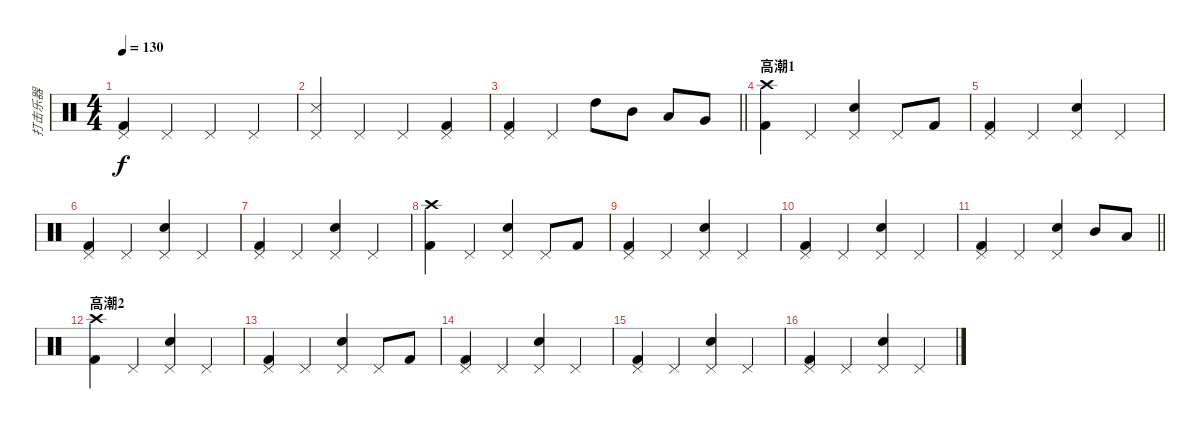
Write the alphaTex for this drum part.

\track ("打击乐器" "打击乐器") {instrument percussion}
\staff {score}
\articulation defaults
\ts (4 4)
\tempo 130
\clef neutral
\ks c
("Pedal Hi-Hat (hit)" "Kick (hit) 2").4{dy f} "Pedal Hi-Hat (hit)".4 "Pedal Hi-Hat (hit)".4 "Pedal Hi-Hat (hit)".4 |
("Pedal Hi-Hat (hit)" "Metronome (hit)").4 "Pedal Hi-Hat (hit)".4 "Pedal Hi-Hat (hit)".4 ("Pedal Hi-Hat (hit)" "Kick (hit) 2").4 |
\barLineRight lightlight
("Pedal Hi-Hat (hit)" "Kick (hit) 2").4 "Pedal Hi-Hat (hit)".4 "High Tom (hit)".8 "Mid Tom (hit)".8 "Low Tom (hit)".8 "Very Low Tom (hit)".8 |
\section ("" "高潮1")
("Crash high (hit)" "Kick (hit) 2").4 "Pedal Hi-Hat (hit)".4 ("Pedal Hi-Hat (hit)" "Snare (hit) 2").4 "Pedal Hi-Hat (hit)".8 "Kick (hit) 2".8 |
("Pedal Hi-Hat (hit)" "Kick (hit) 2").4 "Pedal Hi-Hat (hit)".4 ("Pedal Hi-Hat (hit)" "Snare (hit) 2").4 "Pedal Hi-Hat (hit)".4 |
("Pedal Hi-Hat (hit)" "Kick (hit) 2").4 "Pedal Hi-Hat (hit)".4 ("Pedal Hi-Hat (hit)" "Snare (hit) 2").4 "Pedal Hi-Hat (hit)".4 |
("Pedal Hi-Hat (hit)" "Kick (hit) 2").4 "Pedal Hi-Hat (hit)".4 ("Pedal Hi-Hat (hit)" "Snare (hit) 2").4 "Pedal Hi-Hat (hit)".4 |
("Crash high (hit)" "Kick (hit) 2").4 "Pedal Hi-Hat (hit)".4 ("Pedal Hi-Hat (hit)" "Snare (hit) 2").4 "Pedal Hi-Hat (hit)".8 "Kick (hit) 2".8 |
("Pedal Hi-Hat (hit)" "Kick (hit) 2").4 "Pedal Hi-Hat (hit)".4 ("Pedal Hi-Hat (hit)" "Snare (hit) 2").4 "Pedal Hi-Hat (hit)".4 |
("Pedal Hi-Hat (hit)" "Kick (hit) 2").4 "Pedal Hi-Hat (hit)".4 ("Pedal Hi-Hat (hit)" "Snare (hit) 2").4 "Pedal Hi-Hat (hit)".4 |
\barLineRight lightlight
("Pedal Hi-Hat (hit)" "Kick (hit) 2").4 "Pedal Hi-Hat (hit)".4 ("Pedal Hi-Hat (hit)" "Snare (hit) 2").4 "Mid Tom (hit)".8 "Low Tom (hit)".8 |
\section ("" "高潮2")
("Crash high (hit)" "Kick (hit) 2").4 "Pedal Hi-Hat (hit)".4 ("Pedal Hi-Hat (hit)" "Snare (hit) 2").4 "Pedal Hi-Hat (hit)".4 |
("Pedal Hi-Hat (hit)" "Kick (hit) 2").4 "Pedal Hi-Hat (hit)".4 ("Pedal Hi-Hat (hit)" "Snare (hit) 2").4 "Pedal Hi-Hat (hit)".8 "Kick (hit) 2".8 |
("Pedal Hi-Hat (hit)" "Kick (hit) 2").4 "Pedal Hi-Hat (hit)".4 ("Pedal Hi-Hat (hit)" "Snare (hit) 2").4 "Pedal Hi-Hat (hit)".4 |
("Pedal Hi-Hat (hit)" "Kick (hit) 2").4 "Pedal Hi-Hat (hit)".4 ("Pedal Hi-Hat (hit)" "Snare (hit) 2").4 "Pedal Hi-Hat (hit)".4 |
("Pedal Hi-Hat (hit)" "Kick (hit) 2").4 "Pedal Hi-Hat (hit)".4 ("Pedal Hi-Hat (hit)" "Snare (hit) 2").4 "Pedal Hi-Hat (hit)".4
